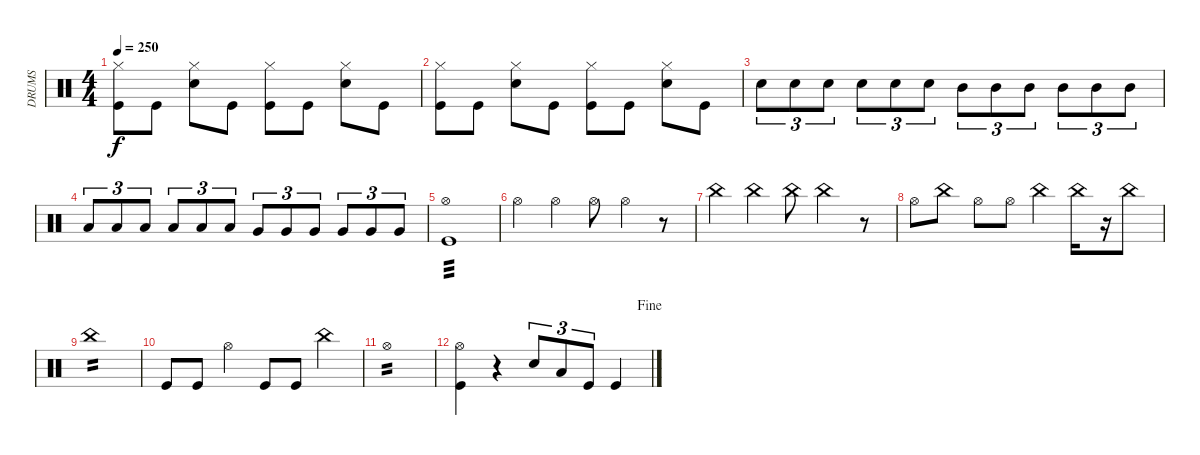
\track ("DRUMS" "DRUMS") {instrument percussion}
\staff {score}
\articulation defaults
\ts (4 4)
\tempo 250
\clef neutral
\ks aminor
("Hi-Hat (closed)" "Kick (hit)").8{dy f} "Kick (hit)".8 ("Hi-Hat (closed)" "Snare (hit) 2").8 "Kick (hit)".8 ("Hi-Hat (closed)" "Kick (hit)").8 "Kick (hit)".8 ("Hi-Hat (closed)" "Snare (hit) 2").8 "Kick (hit)".8 |
("Hi-Hat (closed)" "Kick (hit)").8 "Kick (hit)".8 ("Hi-Hat (closed)" "Snare (hit) 2").8 "Kick (hit)".8 ("Hi-Hat (closed)" "Kick (hit)").8 "Kick (hit)".8 ("Hi-Hat (closed)" "Snare (hit) 2").8 "Kick (hit)".8 |
"Snare (hit) 2".8{tu (3 2)} "Snare (hit) 2".8{tu (3 2)} "Snare (hit) 2".8{tu (3 2)} "Snare (hit) 2".8{tu (3 2)} "Snare (hit) 2".8{tu (3 2)} "Snare (hit) 2".8{tu (3 2)} "Mid Tom (hit)".8{tu (3 2)} "Mid Tom (hit)".8{tu (3 2)} "Mid Tom (hit)".8{tu (3 2)} "Mid Tom (hit)".8{tu (3 2)} "Mid Tom (hit)".8{tu (3 2)} "Mid Tom (hit)".8{tu (3 2)} |
"Low Tom (hit)".8{tu (3 2)} "Low Tom (hit)".8{tu (3 2)} "Low Tom (hit)".8{tu (3 2)} "Low Tom (hit)".8{tu (3 2)} "Low Tom (hit)".8{tu (3 2)} "Low Tom (hit)".8{tu (3 2)} "Very Low Tom (hit)".8{tu (3 2)} "Very Low Tom (hit)".8{tu (3 2)} "Very Low Tom (hit)".8{tu (3 2)} "Very Low Tom (hit)".8{tu (3 2)} "Very Low Tom (hit)".8{tu (3 2)} "Very Low Tom (hit)".8{tu (3 2)} |
("Hi-Hat (open)" "Kick (hit)").1{tp 3} |
"Hi-Hat (open)".4 "Hi-Hat (open)".4 "Hi-Hat (open)".8 "Hi-Hat (open)".4 r.8 |
"China (hit)".4 "China (hit)".4 "China (hit)".8 "China (hit)".4 r.8 |
"Hi-Hat (open)".8 "China (hit)".8 "Hi-Hat (open)".8 "Hi-Hat (open)".8 "China (hit)".4 "China (hit)".16 r.16 "China (hit)".8 |
"China (hit)".1{tp 2} |
"Kick (hit)".8 "Kick (hit)".8 "Hi-Hat (open)".4 "Kick (hit)".8 "Kick (hit)".8 "China (hit)".4 |
"Hi-Hat (open)".1{tp 2} |
\jump fine
("Hi-Hat (open)" "Kick (hit)").4 r.4 "Snare (hit) 2".8{tu (3 2)} "Low Tom (hit)".8{tu (3 2)} "Kick (hit)".8{tu (3 2)} "Kick (hit)".4
